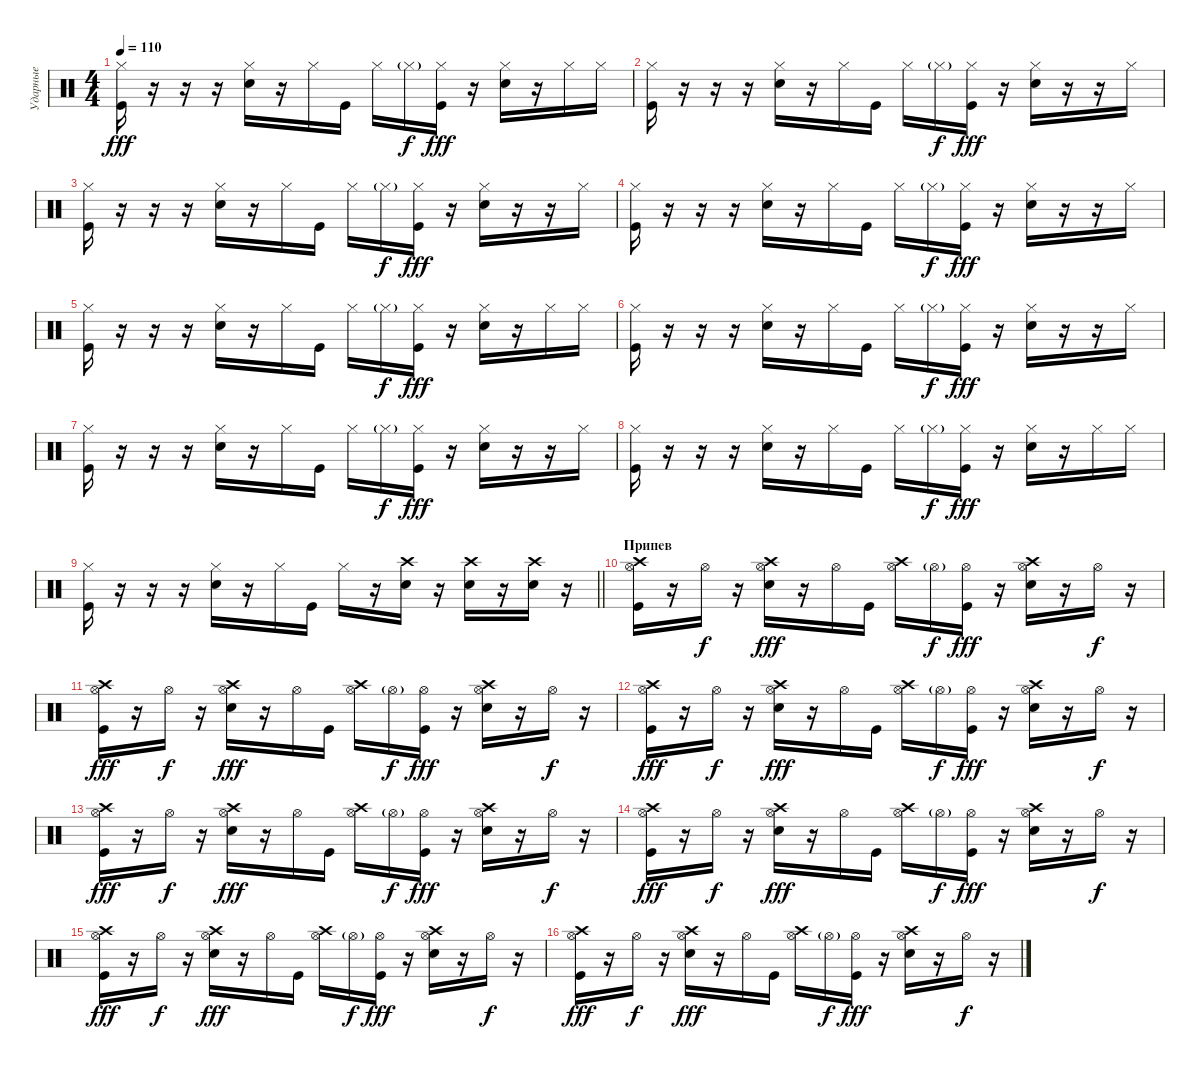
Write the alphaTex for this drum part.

\track ("Ударные" "Ударные") {instrument percussion}
\staff {score}
\articulation defaults
\ts (4 4)
\tempo 110
\clef neutral
\ks c
("Hi-Hat (closed)" "Kick (hit)").16{dy fff} r.16 r.16 r.16 ("Hi-Hat (closed)" "Electric Snare (hit)").16 r.16 "Hi-Hat (closed)".16 "Kick (hit)".16 "Hi-Hat (closed)".16 "Hi-Hat (closed)"{g}.16{dy f} ("Hi-Hat (closed)" "Kick (hit)").16{dy fff} r.16 ("Hi-Hat (closed)" "Electric Snare (hit)").16 r.16 "Hi-Hat (closed)".16 "Hi-Hat (closed)".16 |
("Hi-Hat (closed)" "Kick (hit)").16 r.16 r.16 r.16 ("Hi-Hat (closed)" "Electric Snare (hit)").16 r.16 "Hi-Hat (closed)".16 "Kick (hit)".16 "Hi-Hat (closed)".16 "Hi-Hat (closed)"{g}.16{dy f} ("Hi-Hat (closed)" "Kick (hit)").16{dy fff} r.16 ("Hi-Hat (closed)" "Electric Snare (hit)").16 r.16 r.16 "Hi-Hat (closed)".16 |
("Hi-Hat (closed)" "Kick (hit)").16 r.16 r.16 r.16 ("Hi-Hat (closed)" "Electric Snare (hit)").16 r.16 "Hi-Hat (closed)".16 "Kick (hit)".16 "Hi-Hat (closed)".16 "Hi-Hat (closed)"{g}.16{dy f} ("Hi-Hat (closed)" "Kick (hit)").16{dy fff} r.16 ("Hi-Hat (closed)" "Electric Snare (hit)").16 r.16 r.16 "Hi-Hat (closed)".16 |
("Hi-Hat (closed)" "Kick (hit)").16 r.16 r.16 r.16 ("Hi-Hat (closed)" "Electric Snare (hit)").16 r.16 "Hi-Hat (closed)".16 "Kick (hit)".16 "Hi-Hat (closed)".16 "Hi-Hat (closed)"{g}.16{dy f} ("Hi-Hat (closed)" "Kick (hit)").16{dy fff} r.16 ("Hi-Hat (closed)" "Electric Snare (hit)").16 r.16 r.16 "Hi-Hat (closed)".16 |
("Hi-Hat (closed)" "Kick (hit)").16 r.16 r.16 r.16 ("Hi-Hat (closed)" "Electric Snare (hit)").16 r.16 "Hi-Hat (closed)".16 "Kick (hit)".16 "Hi-Hat (closed)".16 "Hi-Hat (closed)"{g}.16{dy f} ("Hi-Hat (closed)" "Kick (hit)").16{dy fff} r.16 ("Hi-Hat (closed)" "Electric Snare (hit)").16 r.16 "Hi-Hat (closed)".16 "Hi-Hat (closed)".16 |
("Hi-Hat (closed)" "Kick (hit)").16 r.16 r.16 r.16 ("Hi-Hat (closed)" "Electric Snare (hit)").16 r.16 "Hi-Hat (closed)".16 "Kick (hit)".16 "Hi-Hat (closed)".16 "Hi-Hat (closed)"{g}.16{dy f} ("Hi-Hat (closed)" "Kick (hit)").16{dy fff} r.16 ("Hi-Hat (closed)" "Electric Snare (hit)").16 r.16 r.16 "Hi-Hat (closed)".16 |
("Hi-Hat (closed)" "Kick (hit)").16 r.16 r.16 r.16 ("Hi-Hat (closed)" "Electric Snare (hit)").16 r.16 "Hi-Hat (closed)".16 "Kick (hit)".16 "Hi-Hat (closed)".16 "Hi-Hat (closed)"{g}.16{dy f} ("Hi-Hat (closed)" "Kick (hit)").16{dy fff} r.16 ("Hi-Hat (closed)" "Electric Snare (hit)").16 r.16 r.16 "Hi-Hat (closed)".16 |
("Hi-Hat (closed)" "Kick (hit)").16 r.16 r.16 r.16 ("Hi-Hat (closed)" "Electric Snare (hit)").16 r.16 "Hi-Hat (closed)".16 "Kick (hit)".16 "Hi-Hat (closed)".16 "Hi-Hat (closed)"{g}.16{dy f} ("Hi-Hat (closed)" "Kick (hit)").16{dy fff} r.16 ("Hi-Hat (closed)" "Electric Snare (hit)").16 r.16 "Hi-Hat (closed)".16 "Hi-Hat (closed)".16 |
\barLineRight lightlight
("Hi-Hat (closed)" "Kick (hit)").16 r.16 r.16 r.16 ("Hi-Hat (closed)" "Electric Snare (hit)").16 r.16 "Hi-Hat (closed)".16 "Kick (hit)".16 "Hi-Hat (closed)".16 r.16 ("Electric Snare (hit)" "Crash high (hit)").16 r.16 ("Electric Snare (hit)" "Crash high (hit)").16 r.16 ("Electric Snare (hit)" "Crash high (hit)").16 r.16 |
\section ("" "Припев")
("Hi-Hat (open)" "Kick (hit)" "Crash high (hit)").16 r.16 "Hi-Hat (open)".16{dy f} r.16 ("Hi-Hat (open)" "Electric Snare (hit)" "Crash high (hit)").16{dy fff} r.16 "Hi-Hat (open)".16 "Kick (hit)".16 ("Hi-Hat (open)" "Crash high (hit)").16 "Hi-Hat (open)"{g}.16{dy f} ("Hi-Hat (open)" "Kick (hit)").16{dy fff} r.16 ("Hi-Hat (open)" "Electric Snare (hit)" "Crash high (hit)").16 r.16 "Hi-Hat (open)".16{dy f} r.16 |
("Hi-Hat (open)" "Kick (hit)" "Crash high (hit)").16{dy fff} r.16 "Hi-Hat (open)".16{dy f} r.16 ("Hi-Hat (open)" "Electric Snare (hit)" "Crash high (hit)").16{dy fff} r.16 "Hi-Hat (open)".16 "Kick (hit)".16 ("Hi-Hat (open)" "Crash high (hit)").16 "Hi-Hat (open)"{g}.16{dy f} ("Hi-Hat (open)" "Kick (hit)").16{dy fff} r.16 ("Hi-Hat (open)" "Electric Snare (hit)" "Crash high (hit)").16 r.16 "Hi-Hat (open)".16{dy f} r.16 |
("Hi-Hat (open)" "Kick (hit)" "Crash high (hit)").16{dy fff} r.16 "Hi-Hat (open)".16{dy f} r.16 ("Hi-Hat (open)" "Electric Snare (hit)" "Crash high (hit)").16{dy fff} r.16 "Hi-Hat (open)".16 "Kick (hit)".16 ("Hi-Hat (open)" "Crash high (hit)").16 "Hi-Hat (open)"{g}.16{dy f} ("Hi-Hat (open)" "Kick (hit)").16{dy fff} r.16 ("Hi-Hat (open)" "Electric Snare (hit)" "Crash high (hit)").16 r.16 "Hi-Hat (open)".16{dy f} r.16 |
("Hi-Hat (open)" "Kick (hit)" "Crash high (hit)").16{dy fff} r.16 "Hi-Hat (open)".16{dy f} r.16 ("Hi-Hat (open)" "Electric Snare (hit)" "Crash high (hit)").16{dy fff} r.16 "Hi-Hat (open)".16 "Kick (hit)".16 ("Hi-Hat (open)" "Crash high (hit)").16 "Hi-Hat (open)"{g}.16{dy f} ("Hi-Hat (open)" "Kick (hit)").16{dy fff} r.16 ("Hi-Hat (open)" "Electric Snare (hit)" "Crash high (hit)").16 r.16 "Hi-Hat (open)".16{dy f} r.16 |
("Hi-Hat (open)" "Kick (hit)" "Crash high (hit)").16{dy fff} r.16 "Hi-Hat (open)".16{dy f} r.16 ("Hi-Hat (open)" "Electric Snare (hit)" "Crash high (hit)").16{dy fff} r.16 "Hi-Hat (open)".16 "Kick (hit)".16 ("Hi-Hat (open)" "Crash high (hit)").16 "Hi-Hat (open)"{g}.16{dy f} ("Hi-Hat (open)" "Kick (hit)").16{dy fff} r.16 ("Hi-Hat (open)" "Electric Snare (hit)" "Crash high (hit)").16 r.16 "Hi-Hat (open)".16{dy f} r.16 |
("Hi-Hat (open)" "Kick (hit)" "Crash high (hit)").16{dy fff} r.16 "Hi-Hat (open)".16{dy f} r.16 ("Hi-Hat (open)" "Electric Snare (hit)" "Crash high (hit)").16{dy fff} r.16 "Hi-Hat (open)".16 "Kick (hit)".16 ("Hi-Hat (open)" "Crash high (hit)").16 "Hi-Hat (open)"{g}.16{dy f} ("Hi-Hat (open)" "Kick (hit)").16{dy fff} r.16 ("Hi-Hat (open)" "Electric Snare (hit)" "Crash high (hit)").16 r.16 "Hi-Hat (open)".16{dy f} r.16 |
("Hi-Hat (open)" "Kick (hit)" "Crash high (hit)").16{dy fff} r.16 "Hi-Hat (open)".16{dy f} r.16 ("Hi-Hat (open)" "Electric Snare (hit)" "Crash high (hit)").16{dy fff} r.16 "Hi-Hat (open)".16 "Kick (hit)".16 ("Hi-Hat (open)" "Crash high (hit)").16 "Hi-Hat (open)"{g}.16{dy f} ("Hi-Hat (open)" "Kick (hit)").16{dy fff} r.16 ("Hi-Hat (open)" "Electric Snare (hit)" "Crash high (hit)").16 r.16 "Hi-Hat (open)".16{dy f} r.16
